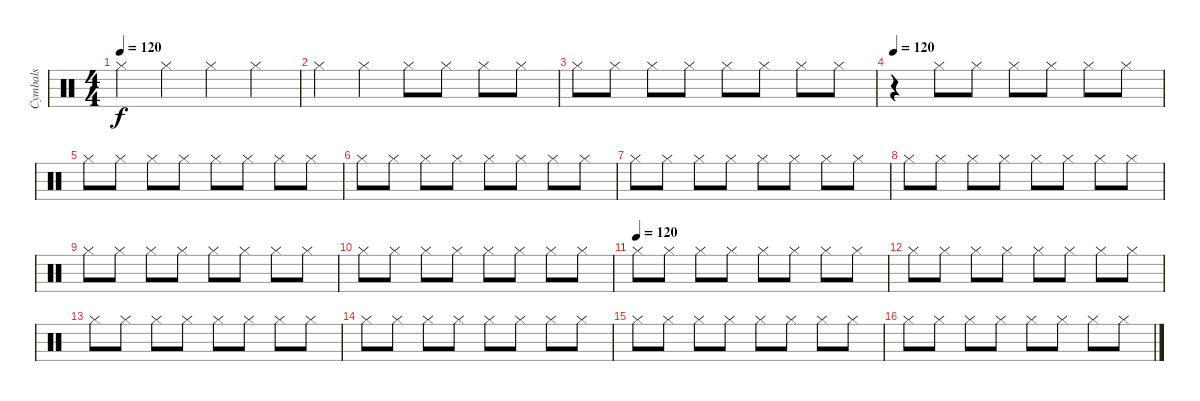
\track ("Cymbals" "Cymbals") {instrument percussion}
\staff {score}
\articulation defaults
\ts (4 4)
\tempo 120
\clef neutral
\ks c "Hi-Hat (closed)".4{dy f} "Hi-Hat (closed)".4 "Hi-Hat (closed)".4 "Hi-Hat (closed)".4
|
"Hi-Hat (closed)".4 "Hi-Hat (closed)".4 "Hi-Hat (closed)".8 "Hi-Hat (closed)".8 "Hi-Hat (closed)".8 "Hi-Hat (closed)".8 |
"Hi-Hat (closed)".8 "Hi-Hat (closed)".8 "Hi-Hat (closed)".8 "Hi-Hat (closed)".8 "Hi-Hat (closed)".8 "Hi-Hat (closed)".8 "Hi-Hat (closed)".8 "Hi-Hat (closed)".8 |
\tempo 120
r.4 "Hi-Hat (closed)".8 "Hi-Hat (closed)".8 "Hi-Hat (closed)".8 "Hi-Hat (closed)".8 "Hi-Hat (closed)".8 "Hi-Hat (closed)".8 |
"Hi-Hat (closed)".8 "Hi-Hat (closed)".8 "Hi-Hat (closed)".8 "Hi-Hat (closed)".8 "Hi-Hat (closed)".8 "Hi-Hat (closed)".8 "Hi-Hat (closed)".8 "Hi-Hat (closed)".8 |
"Hi-Hat (closed)".8 "Hi-Hat (closed)".8 "Hi-Hat (closed)".8 "Hi-Hat (closed)".8 "Hi-Hat (closed)".8 "Hi-Hat (closed)".8 "Hi-Hat (closed)".8 "Hi-Hat (closed)".8 |
"Hi-Hat (closed)".8 "Hi-Hat (closed)".8 "Hi-Hat (closed)".8 "Hi-Hat (closed)".8 "Hi-Hat (closed)".8 "Hi-Hat (closed)".8 "Hi-Hat (closed)".8 "Hi-Hat (closed)".8 |
"Hi-Hat (closed)".8 "Hi-Hat (closed)".8 "Hi-Hat (closed)".8 "Hi-Hat (closed)".8 "Hi-Hat (closed)".8 "Hi-Hat (closed)".8 "Hi-Hat (closed)".8 "Hi-Hat (closed)".8 |
"Hi-Hat (closed)".8 "Hi-Hat (closed)".8 "Hi-Hat (closed)".8 "Hi-Hat (closed)".8 "Hi-Hat (closed)".8 "Hi-Hat (closed)".8 "Hi-Hat (closed)".8 "Hi-Hat (closed)".8 |
"Hi-Hat (closed)".8 "Hi-Hat (closed)".8 "Hi-Hat (closed)".8 "Hi-Hat (closed)".8 "Hi-Hat (closed)".8 "Hi-Hat (closed)".8 "Hi-Hat (closed)".8 "Hi-Hat (closed)".8 |
\tempo (120)
"Hi-Hat (closed)".8 "Hi-Hat (closed)".8 "Hi-Hat (closed)".8 "Hi-Hat (closed)".8 "Hi-Hat (closed)".8 "Hi-Hat (closed)".8 "Hi-Hat (closed)".8 "Hi-Hat (closed)".8 |
"Hi-Hat (closed)".8 "Hi-Hat (closed)".8 "Hi-Hat (closed)".8 "Hi-Hat (closed)".8 "Hi-Hat (closed)".8 "Hi-Hat (closed)".8 "Hi-Hat (closed)".8 "Hi-Hat (closed)".8 |
"Hi-Hat (closed)".8 "Hi-Hat (closed)".8 "Hi-Hat (closed)".8 "Hi-Hat (closed)".8 "Hi-Hat (closed)".8 "Hi-Hat (closed)".8 "Hi-Hat (closed)".8 "Hi-Hat (closed)".8 |
"Hi-Hat (closed)".8 "Hi-Hat (closed)".8 "Hi-Hat (closed)".8 "Hi-Hat (closed)".8 "Hi-Hat (closed)".8 "Hi-Hat (closed)".8 "Hi-Hat (closed)".8 "Hi-Hat (closed)".8 |
"Hi-Hat (closed)".8 "Hi-Hat (closed)".8 "Hi-Hat (closed)".8 "Hi-Hat (closed)".8 "Hi-Hat (closed)".8 "Hi-Hat (closed)".8 "Hi-Hat (closed)".8 "Hi-Hat (closed)".8 |
"Hi-Hat (closed)".8 "Hi-Hat (closed)".8 "Hi-Hat (closed)".8 "Hi-Hat (closed)".8 "Hi-Hat (closed)".8 "Hi-Hat (closed)".8 "Hi-Hat (closed)".8 "Hi-Hat (closed)".8
